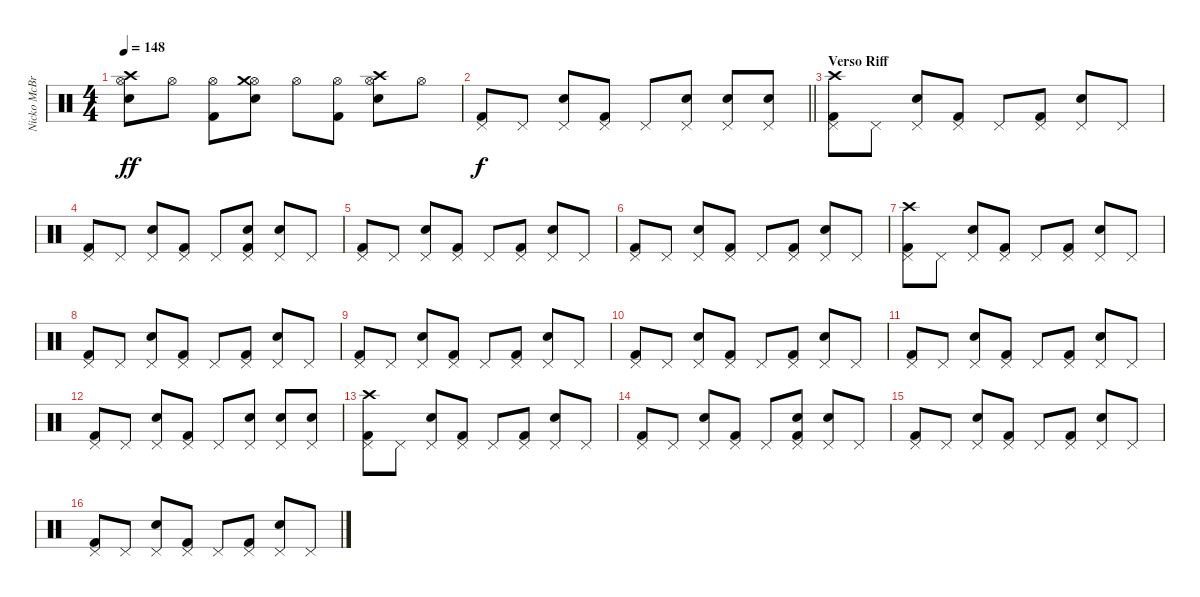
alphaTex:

\track ("Nicko McBrain" "Nicko McBr") {instrument percussion}
\staff {score}
\articulation defaults
\ts (4 4)
\tempo 148
\clef neutral
\ks c
("Snare (hit) 2" "Hi-Hat (open)" "Crash high (hit)").8{dy ff} "Hi-Hat (open)".8 ("Kick (hit) 2" "Hi-Hat (open)").8 ("Snare (hit) 2" "Hi-Hat (open)" "Crash medium (hit)").8 "Hi-Hat (open)".8 ("Kick (hit) 2" "Hi-Hat (open)").8 ("Snare (hit) 2" "Hi-Hat (open)" "Crash high (hit)").8 "Hi-Hat (open)".8 |
\barLineRight lightlight
("Kick (hit) 2" "Pedal Hi-Hat (hit)").8{dy f} "Pedal Hi-Hat (hit)".8 ("Snare (hit) 2" "Pedal Hi-Hat (hit)").8 ("Kick (hit) 2" "Pedal Hi-Hat (hit)").8 "Pedal Hi-Hat (hit)".8 ("Snare (hit) 2" "Pedal Hi-Hat (hit)").8 ("Snare (hit) 2" "Pedal Hi-Hat (hit)").8 ("Snare (hit) 2" "Pedal Hi-Hat (hit)").8 |
\section ("" "Verso Riff")
("Kick (hit) 2" "Pedal Hi-Hat (hit)" "Crash high (hit)").8 "Pedal Hi-Hat (hit)".8 ("Snare (hit) 2" "Pedal Hi-Hat (hit)").8 ("Kick (hit) 2" "Pedal Hi-Hat (hit)").8 "Pedal Hi-Hat (hit)".8 ("Kick (hit) 2" "Pedal Hi-Hat (hit)").8 ("Snare (hit) 2" "Pedal Hi-Hat (hit)").8 "Pedal Hi-Hat (hit)".8 |
("Kick (hit) 2" "Pedal Hi-Hat (hit)").8 "Pedal Hi-Hat (hit)".8 ("Snare (hit) 2" "Pedal Hi-Hat (hit)").8 ("Kick (hit) 2" "Pedal Hi-Hat (hit)").8 "Pedal Hi-Hat (hit)".8 ("Kick (hit) 2" "Pedal Hi-Hat (hit)" "Snare (hit) 2").8 ("Snare (hit) 2" "Pedal Hi-Hat (hit)").8 "Pedal Hi-Hat (hit)".8 |
("Kick (hit) 2" "Pedal Hi-Hat (hit)").8 "Pedal Hi-Hat (hit)".8 ("Snare (hit) 2" "Pedal Hi-Hat (hit)").8 ("Kick (hit) 2" "Pedal Hi-Hat (hit)").8 "Pedal Hi-Hat (hit)".8 ("Kick (hit) 2" "Pedal Hi-Hat (hit)").8 ("Snare (hit) 2" "Pedal Hi-Hat (hit)").8 "Pedal Hi-Hat (hit)".8 |
("Kick (hit) 2" "Pedal Hi-Hat (hit)").8 "Pedal Hi-Hat (hit)".8 ("Snare (hit) 2" "Pedal Hi-Hat (hit)").8 ("Kick (hit) 2" "Pedal Hi-Hat (hit)").8 "Pedal Hi-Hat (hit)".8 ("Kick (hit) 2" "Pedal Hi-Hat (hit)").8 ("Snare (hit) 2" "Pedal Hi-Hat (hit)").8 "Pedal Hi-Hat (hit)".8 |
("Kick (hit) 2" "Pedal Hi-Hat (hit)" "Crash high (hit)").8 "Pedal Hi-Hat (hit)".8 ("Snare (hit) 2" "Pedal Hi-Hat (hit)").8 ("Kick (hit) 2" "Pedal Hi-Hat (hit)").8 "Pedal Hi-Hat (hit)".8 ("Kick (hit) 2" "Pedal Hi-Hat (hit)").8 ("Snare (hit) 2" "Pedal Hi-Hat (hit)").8 "Pedal Hi-Hat (hit)".8 |
("Kick (hit) 2" "Pedal Hi-Hat (hit)").8 "Pedal Hi-Hat (hit)".8 ("Snare (hit) 2" "Pedal Hi-Hat (hit)").8 ("Kick (hit) 2" "Pedal Hi-Hat (hit)").8 "Pedal Hi-Hat (hit)".8 ("Kick (hit) 2" "Pedal Hi-Hat (hit)").8 ("Snare (hit) 2" "Pedal Hi-Hat (hit)").8 "Pedal Hi-Hat (hit)".8 |
("Kick (hit) 2" "Pedal Hi-Hat (hit)").8 "Pedal Hi-Hat (hit)".8 ("Snare (hit) 2" "Pedal Hi-Hat (hit)").8 ("Kick (hit) 2" "Pedal Hi-Hat (hit)").8 "Pedal Hi-Hat (hit)".8 ("Kick (hit) 2" "Pedal Hi-Hat (hit)").8 ("Snare (hit) 2" "Pedal Hi-Hat (hit)").8 "Pedal Hi-Hat (hit)".8 |
("Kick (hit) 2" "Pedal Hi-Hat (hit)").8 "Pedal Hi-Hat (hit)".8 ("Snare (hit) 2" "Pedal Hi-Hat (hit)").8 ("Kick (hit) 2" "Pedal Hi-Hat (hit)").8 "Pedal Hi-Hat (hit)".8 ("Kick (hit) 2" "Pedal Hi-Hat (hit)").8 ("Snare (hit) 2" "Pedal Hi-Hat (hit)").8 "Pedal Hi-Hat (hit)".8 |
("Kick (hit) 2" "Pedal Hi-Hat (hit)").8 "Pedal Hi-Hat (hit)".8 ("Snare (hit) 2" "Pedal Hi-Hat (hit)").8 ("Kick (hit) 2" "Pedal Hi-Hat (hit)").8 "Pedal Hi-Hat (hit)".8 ("Kick (hit) 2" "Pedal Hi-Hat (hit)").8 ("Snare (hit) 2" "Pedal Hi-Hat (hit)").8 "Pedal Hi-Hat (hit)".8 |
("Kick (hit) 2" "Pedal Hi-Hat (hit)").8 "Pedal Hi-Hat (hit)".8 ("Snare (hit) 2" "Pedal Hi-Hat (hit)").8 ("Kick (hit) 2" "Pedal Hi-Hat (hit)").8 "Pedal Hi-Hat (hit)".8 ("Snare (hit) 2" "Pedal Hi-Hat (hit)").8 ("Snare (hit) 2" "Pedal Hi-Hat (hit)").8 ("Snare (hit) 2" "Pedal Hi-Hat (hit)").8 |
("Kick (hit) 2" "Pedal Hi-Hat (hit)" "Crash high (hit)").8 "Pedal Hi-Hat (hit)".8 ("Snare (hit) 2" "Pedal Hi-Hat (hit)").8 ("Kick (hit) 2" "Pedal Hi-Hat (hit)").8 "Pedal Hi-Hat (hit)".8 ("Kick (hit) 2" "Pedal Hi-Hat (hit)").8 ("Snare (hit) 2" "Pedal Hi-Hat (hit)").8 "Pedal Hi-Hat (hit)".8 |
("Kick (hit) 2" "Pedal Hi-Hat (hit)").8 "Pedal Hi-Hat (hit)".8 ("Snare (hit) 2" "Pedal Hi-Hat (hit)").8 ("Kick (hit) 2" "Pedal Hi-Hat (hit)").8 "Pedal Hi-Hat (hit)".8 ("Kick (hit) 2" "Pedal Hi-Hat (hit)" "Snare (hit) 2").8 ("Snare (hit) 2" "Pedal Hi-Hat (hit)").8 "Pedal Hi-Hat (hit)".8 |
("Kick (hit) 2" "Pedal Hi-Hat (hit)").8 "Pedal Hi-Hat (hit)".8 ("Snare (hit) 2" "Pedal Hi-Hat (hit)").8 ("Kick (hit) 2" "Pedal Hi-Hat (hit)").8 "Pedal Hi-Hat (hit)".8 ("Kick (hit) 2" "Pedal Hi-Hat (hit)").8 ("Snare (hit) 2" "Pedal Hi-Hat (hit)").8 "Pedal Hi-Hat (hit)".8 |
("Kick (hit) 2" "Pedal Hi-Hat (hit)").8 "Pedal Hi-Hat (hit)".8 ("Snare (hit) 2" "Pedal Hi-Hat (hit)").8 ("Kick (hit) 2" "Pedal Hi-Hat (hit)").8 "Pedal Hi-Hat (hit)".8 ("Kick (hit) 2" "Pedal Hi-Hat (hit)").8 ("Snare (hit) 2" "Pedal Hi-Hat (hit)").8 "Pedal Hi-Hat (hit)".8
